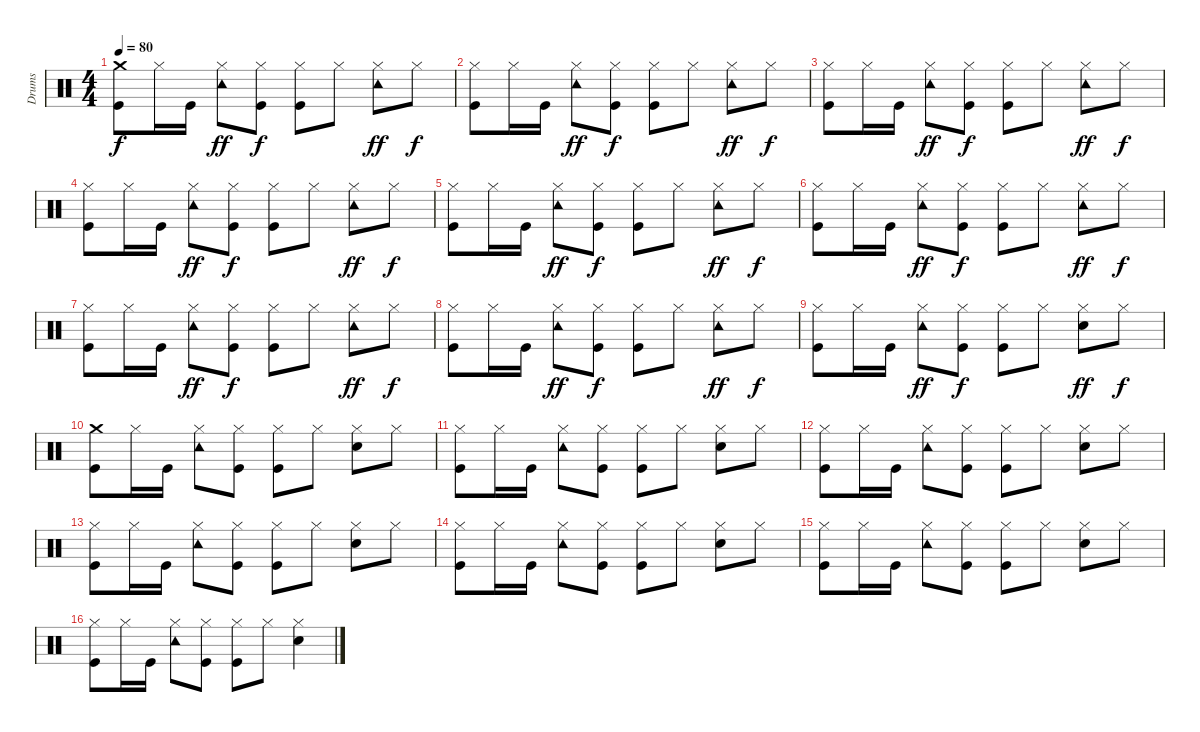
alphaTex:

\track ("Drums" "Drums") {instrument percussion}
\staff {score}
\articulation defaults
\ts (4 4)
\tempo 80
\clef neutral
\ks c
("Crash medium (hit)" "Kick (hit)").8{dy f} "Hi-Hat (closed)".16 "Kick (hit)".16 ("Tambourine (hit)" "Hi-Hat (closed)").8{dy ff} ("Hi-Hat (closed)" "Kick (hit)").8{dy f} ("Hi-Hat (closed)" "Kick (hit)").8 "Hi-Hat (closed)".8 ("Tambourine (hit)" "Hi-Hat (closed)").8{dy ff} "Hi-Hat (closed)".8{dy f} |
("Hi-Hat (closed)" "Kick (hit)").8 "Hi-Hat (closed)".16 "Kick (hit)".16 ("Tambourine (hit)" "Hi-Hat (closed)").8{dy ff} ("Hi-Hat (closed)" "Kick (hit)").8{dy f} ("Hi-Hat (closed)" "Kick (hit)").8 "Hi-Hat (closed)".8 ("Tambourine (hit)" "Hi-Hat (closed)").8{dy ff} "Hi-Hat (closed)".8{dy f} |
("Hi-Hat (closed)" "Kick (hit)").8 "Hi-Hat (closed)".16 "Kick (hit)".16 ("Tambourine (hit)" "Hi-Hat (closed)").8{dy ff} ("Hi-Hat (closed)" "Kick (hit)").8{dy f} ("Hi-Hat (closed)" "Kick (hit)").8 "Hi-Hat (closed)".8 ("Tambourine (hit)" "Hi-Hat (closed)").8{dy ff} "Hi-Hat (closed)".8{dy f} |
("Hi-Hat (closed)" "Kick (hit)").8 "Hi-Hat (closed)".16 "Kick (hit)".16 ("Tambourine (hit)" "Hi-Hat (closed)").8{dy ff} ("Hi-Hat (closed)" "Kick (hit)").8{dy f} ("Hi-Hat (closed)" "Kick (hit)").8 "Hi-Hat (closed)".8 ("Tambourine (hit)" "Hi-Hat (closed)").8{dy ff} "Hi-Hat (closed)".8{dy f} |
("Hi-Hat (closed)" "Kick (hit)").8 "Hi-Hat (closed)".16 "Kick (hit)".16 ("Tambourine (hit)" "Hi-Hat (closed)").8{dy ff} ("Hi-Hat (closed)" "Kick (hit)").8{dy f} ("Hi-Hat (closed)" "Kick (hit)").8 "Hi-Hat (closed)".8 ("Tambourine (hit)" "Hi-Hat (closed)").8{dy ff} "Hi-Hat (closed)".8{dy f} |
("Hi-Hat (closed)" "Kick (hit)").8 "Hi-Hat (closed)".16 "Kick (hit)".16 ("Tambourine (hit)" "Hi-Hat (closed)").8{dy ff} ("Hi-Hat (closed)" "Kick (hit)").8{dy f} ("Hi-Hat (closed)" "Kick (hit)").8 "Hi-Hat (closed)".8 ("Tambourine (hit)" "Hi-Hat (closed)").8{dy ff} "Hi-Hat (closed)".8{dy f} |
("Hi-Hat (closed)" "Kick (hit)").8 "Hi-Hat (closed)".16 "Kick (hit)".16 ("Tambourine (hit)" "Hi-Hat (closed)").8{dy ff} ("Hi-Hat (closed)" "Kick (hit)").8{dy f} ("Hi-Hat (closed)" "Kick (hit)").8 "Hi-Hat (closed)".8 ("Tambourine (hit)" "Hi-Hat (closed)").8{dy ff} "Hi-Hat (closed)".8{dy f} |
("Hi-Hat (closed)" "Kick (hit)").8 "Hi-Hat (closed)".16 "Kick (hit)".16 ("Tambourine (hit)" "Hi-Hat (closed)").8{dy ff} ("Hi-Hat (closed)" "Kick (hit)").8{dy f} ("Hi-Hat (closed)" "Kick (hit)").8 "Hi-Hat (closed)".8 ("Tambourine (hit)" "Hi-Hat (closed)").8{dy ff} "Hi-Hat (closed)".8{dy f} |
("Hi-Hat (closed)" "Kick (hit)").8 "Hi-Hat (closed)".16 "Kick (hit)".16 ("Tambourine (hit)" "Hi-Hat (closed)").8{dy ff} ("Hi-Hat (closed)" "Kick (hit)").8{dy f} ("Hi-Hat (closed)" "Kick (hit)").8 "Hi-Hat (closed)".8 ("Electric Snare (hit)" "Hi-Hat (closed)").8{dy ff} "Hi-Hat (closed)".8{dy f} |
("Crash medium (hit)" "Kick (hit)").8 "Hi-Hat (closed)".16 "Kick (hit)".16 ("Tambourine (hit)" "Hi-Hat (closed)").8 ("Hi-Hat (closed)" "Kick (hit)").8 ("Hi-Hat (closed)" "Kick (hit)").8 "Hi-Hat (closed)".8 ("Electric Snare (hit)" "Hi-Hat (closed)").8 "Hi-Hat (closed)".8 |
("Hi-Hat (closed)" "Kick (hit)").8 "Hi-Hat (closed)".16 "Kick (hit)".16 ("Tambourine (hit)" "Hi-Hat (closed)").8 ("Hi-Hat (closed)" "Kick (hit)").8 ("Hi-Hat (closed)" "Kick (hit)").8 "Hi-Hat (closed)".8 ("Electric Snare (hit)" "Hi-Hat (closed)").8 "Hi-Hat (closed)".8 |
("Hi-Hat (closed)" "Kick (hit)").8 "Hi-Hat (closed)".16 "Kick (hit)".16 ("Tambourine (hit)" "Hi-Hat (closed)").8 ("Hi-Hat (closed)" "Kick (hit)").8 ("Hi-Hat (closed)" "Kick (hit)").8 "Hi-Hat (closed)".8 ("Electric Snare (hit)" "Hi-Hat (closed)").8 "Hi-Hat (closed)".8 |
("Hi-Hat (closed)" "Kick (hit)").8 "Hi-Hat (closed)".16 "Kick (hit)".16 ("Tambourine (hit)" "Hi-Hat (closed)").8 ("Hi-Hat (closed)" "Kick (hit)").8 ("Hi-Hat (closed)" "Kick (hit)").8 "Hi-Hat (closed)".8 ("Electric Snare (hit)" "Hi-Hat (closed)").8 "Hi-Hat (closed)".8 |
("Hi-Hat (closed)" "Kick (hit)").8 "Hi-Hat (closed)".16 "Kick (hit)".16 ("Tambourine (hit)" "Hi-Hat (closed)").8 ("Hi-Hat (closed)" "Kick (hit)").8 ("Hi-Hat (closed)" "Kick (hit)").8 "Hi-Hat (closed)".8 ("Electric Snare (hit)" "Hi-Hat (closed)").8 "Hi-Hat (closed)".8 |
("Hi-Hat (closed)" "Kick (hit)").8 "Hi-Hat (closed)".16 "Kick (hit)".16 ("Tambourine (hit)" "Hi-Hat (closed)").8 ("Hi-Hat (closed)" "Kick (hit)").8 ("Hi-Hat (closed)" "Kick (hit)").8 "Hi-Hat (closed)".8 ("Electric Snare (hit)" "Hi-Hat (closed)").8 "Hi-Hat (closed)".8 |
("Hi-Hat (closed)" "Kick (hit)").8 "Hi-Hat (closed)".16 "Kick (hit)".16 ("Tambourine (hit)" "Hi-Hat (closed)").8 ("Hi-Hat (closed)" "Kick (hit)").8 ("Hi-Hat (closed)" "Kick (hit)").8 "Hi-Hat (closed)".8 ("Electric Snare (hit)" "Hi-Hat (closed)").4
